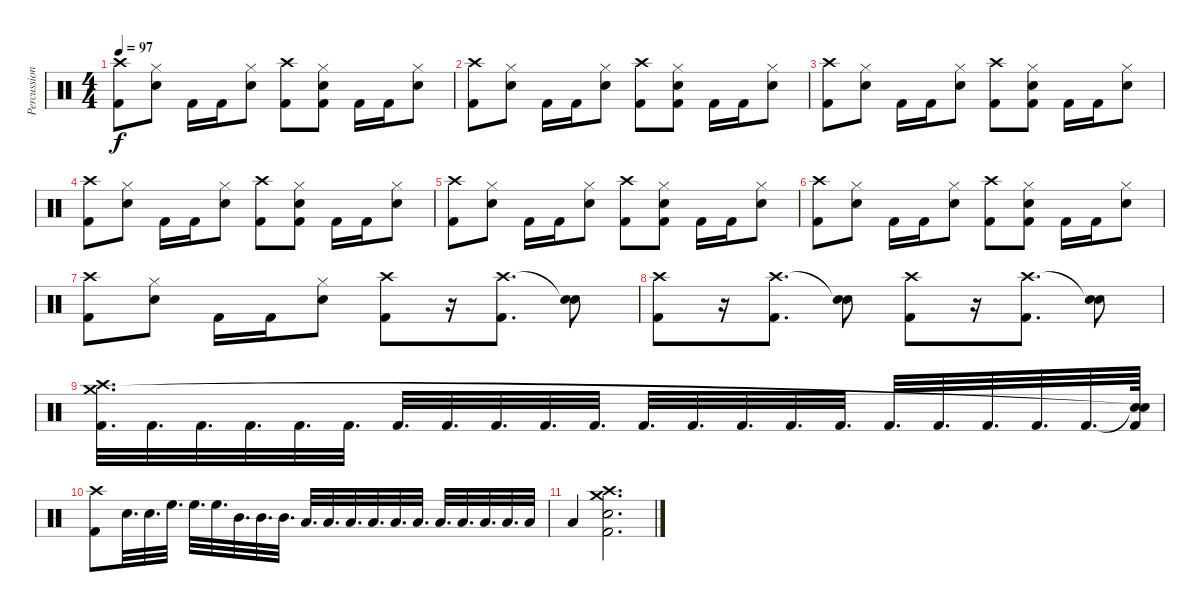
\track ("Percussion" "Percussion") {instrument percussion}
\staff {score}
\articulation defaults
\ts (4 4)
\tempo 97
\clef neutral
\ks c
("Crash high (hit)" "Kick (hit) 2").8{dy f} ("Hi-Hat (closed)" "Snare (hit) 2").8 "Kick (hit) 2".16 "Kick (hit) 2".16 ("Hi-Hat (closed)" "Snare (hit) 2").8 ("Crash high (hit)" "Kick (hit) 2").8 ("Hi-Hat (closed)" "Snare (hit) 2" "Kick (hit) 2").8 "Kick (hit) 2".16 "Kick (hit) 2".16 ("Hi-Hat (closed)" "Snare (hit) 2").8 |
("Crash high (hit)" "Kick (hit) 2").8 ("Hi-Hat (closed)" "Snare (hit) 2").8 "Kick (hit) 2".16 "Kick (hit) 2".16 ("Hi-Hat (closed)" "Snare (hit) 2").8 ("Crash high (hit)" "Kick (hit) 2").8 ("Hi-Hat (closed)" "Snare (hit) 2" "Kick (hit) 2").8 "Kick (hit) 2".16 "Kick (hit) 2".16 ("Hi-Hat (closed)" "Snare (hit) 2").8 |
("Crash high (hit)" "Kick (hit) 2").8 ("Hi-Hat (closed)" "Snare (hit) 2").8 "Kick (hit) 2".16 "Kick (hit) 2".16 ("Hi-Hat (closed)" "Snare (hit) 2").8 ("Crash high (hit)" "Kick (hit) 2").8 ("Hi-Hat (closed)" "Snare (hit) 2" "Kick (hit) 2").8 "Kick (hit) 2".16 "Kick (hit) 2".16 ("Hi-Hat (closed)" "Snare (hit) 2").8 |
("Crash high (hit)" "Kick (hit) 2").8 ("Hi-Hat (closed)" "Snare (hit) 2").8 "Kick (hit) 2".16 "Kick (hit) 2".16 ("Hi-Hat (closed)" "Snare (hit) 2").8 ("Crash high (hit)" "Kick (hit) 2").8 ("Hi-Hat (closed)" "Snare (hit) 2" "Kick (hit) 2").8 "Kick (hit) 2".16 "Kick (hit) 2".16 ("Hi-Hat (closed)" "Snare (hit) 2").8 |
("Crash high (hit)" "Kick (hit) 2").8 ("Hi-Hat (closed)" "Snare (hit) 2").8 "Kick (hit) 2".16 "Kick (hit) 2".16 ("Hi-Hat (closed)" "Snare (hit) 2").8 ("Crash high (hit)" "Kick (hit) 2").8 ("Hi-Hat (closed)" "Snare (hit) 2" "Kick (hit) 2").8 "Kick (hit) 2".16 "Kick (hit) 2".16 ("Hi-Hat (closed)" "Snare (hit) 2").8 |
("Crash high (hit)" "Kick (hit) 2").8 ("Hi-Hat (closed)" "Snare (hit) 2").8 "Kick (hit) 2".16 "Kick (hit) 2".16 ("Hi-Hat (closed)" "Snare (hit) 2").8 ("Crash high (hit)" "Kick (hit) 2").8 ("Hi-Hat (closed)" "Snare (hit) 2" "Kick (hit) 2").8 "Kick (hit) 2".16 "Kick (hit) 2".16 ("Hi-Hat (closed)" "Snare (hit) 2").8 |
("Crash high (hit)" "Kick (hit) 2").8 ("Hi-Hat (closed)" "Snare (hit) 2").8 "Kick (hit) 2".16 "Kick (hit) 2".16 ("Hi-Hat (closed)" "Snare (hit) 2").8 ("Crash high (hit)" "Kick (hit) 2").8 r.16 ("Crash high (hit)" "Kick (hit) 2").8{d} ("Snare (hit)"{t} "Snare (hit) 2").8 |
("Crash high (hit)" "Kick (hit) 2").8 r.16 ("Crash high (hit)" "Kick (hit) 2").8{d} ("Snare (hit)"{t} "Snare (hit) 2").8 ("Crash high (hit)" "Kick (hit) 2").8 r.16 ("Crash high (hit)" "Kick (hit) 2").8{d} ("Snare (hit)"{t} "Snare (hit) 2").8 |
("Crash high (hit)" "Crash medium (hit)" "Kick (hit) 2").32{d} "Kick (hit) 2".32{d} "Kick (hit) 2".32{d} "Kick (hit) 2".32{d} "Kick (hit) 2".32{d} "Kick (hit) 2".32{d} "Kick (hit) 2".32{d} "Kick (hit) 2".32{d} "Kick (hit) 2".32{d} "Kick (hit) 2".32{d} "Kick (hit) 2".32{d} "Kick (hit) 2".32{d} "Kick (hit) 2".32{d} "Kick (hit) 2".32{d} "Kick (hit) 2".32{d} "Kick (hit) 2".32{d} "Kick (hit) 2".32{d} "Kick (hit) 2".32{d} "Kick (hit) 2".32{d} "Kick (hit) 2".32{d} "Kick (hit) 2".32{d} ("Snare (hit)"{t} "Snare (hit)"{t} "Kick (hit) 2").64 |
("Crash high (hit)" "Kick (hit) 2").8 "Snare (hit) 2".32{d} "Snare (hit) 2".32{d} "High Floor Tom (hit)".32{d} "High Floor Tom (hit)".32{d} "High Floor Tom (hit)".32{d} "Mid Tom (hit)".32{d} "Mid Tom (hit)".32{d} "Mid Tom (hit)".32{d} "Low Tom (hit)".32{d} "Low Tom (hit)".32{d} "Low Tom (hit)".32{d} "Low Floor Tom (hit)".32{d} "Low Floor Tom (hit)".32{d} "Low Floor Tom (hit)".32{d} "Low Floor Tom (hit)".32{d} "Low Floor Tom (hit)".32{d} "Low Floor Tom (hit)".32{d} "Low Floor Tom (hit)".32{d} "Low Floor Tom (hit)".32 |
"Low Floor Tom (hit)".4 ("Crash high (hit)" "Crash medium (hit)" "Snare (hit) 2" "Kick (hit) 2").2{d}
